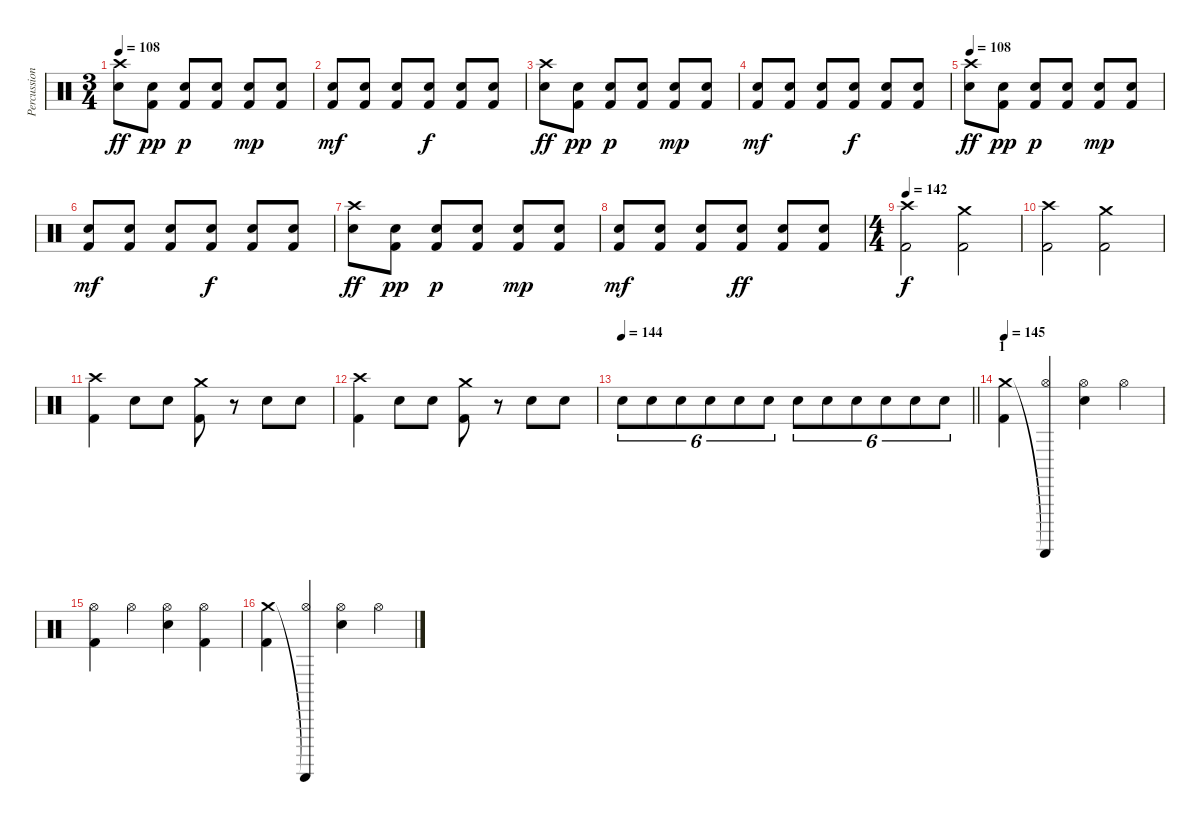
\track ("Percussion" "Percussion") {instrument percussion}
\staff {score}
\articulation defaults
\ts (3 4)
\tempo 108
\clef neutral
\ks c
("Electric Snare (hit)" "Crash high (hit)").8{dy ff} ("Electric Snare (hit)" "Kick (hit) 2").8{dy pp} ("Electric Snare (hit)" "Kick (hit) 2").8{dy p} ("Electric Snare (hit)" "Kick (hit) 2").8 ("Electric Snare (hit)" "Kick (hit) 2").8{dy mp} ("Electric Snare (hit)" "Kick (hit) 2").8 |
("Electric Snare (hit)" "Kick (hit) 2").8{dy mf} ("Electric Snare (hit)" "Kick (hit) 2").8 ("Electric Snare (hit)" "Kick (hit) 2").8 ("Electric Snare (hit)" "Kick (hit) 2").8{dy f} ("Electric Snare (hit)" "Kick (hit) 2").8 ("Electric Snare (hit)" "Kick (hit) 2").8 |
("Electric Snare (hit)" "Crash high (hit)").8{dy ff} ("Electric Snare (hit)" "Kick (hit) 2").8{dy pp} ("Electric Snare (hit)" "Kick (hit) 2").8{dy p} ("Electric Snare (hit)" "Kick (hit) 2").8 ("Electric Snare (hit)" "Kick (hit) 2").8{dy mp} ("Electric Snare (hit)" "Kick (hit) 2").8 |
("Electric Snare (hit)" "Kick (hit) 2").8{dy mf} ("Electric Snare (hit)" "Kick (hit) 2").8 ("Electric Snare (hit)" "Kick (hit) 2").8 ("Electric Snare (hit)" "Kick (hit) 2").8{dy f} ("Electric Snare (hit)" "Kick (hit) 2").8 ("Electric Snare (hit)" "Kick (hit) 2").8 |
\tempo 108
("Electric Snare (hit)" "Crash high (hit)").8{dy ff} ("Electric Snare (hit)" "Kick (hit) 2").8{dy pp} ("Electric Snare (hit)" "Kick (hit) 2").8{dy p} ("Electric Snare (hit)" "Kick (hit) 2").8 ("Electric Snare (hit)" "Kick (hit) 2").8{dy mp} ("Electric Snare (hit)" "Kick (hit) 2").8 |
("Electric Snare (hit)" "Kick (hit) 2").8{dy mf} ("Electric Snare (hit)" "Kick (hit) 2").8 ("Electric Snare (hit)" "Kick (hit) 2").8 ("Electric Snare (hit)" "Kick (hit) 2").8{dy f} ("Electric Snare (hit)" "Kick (hit) 2").8 ("Electric Snare (hit)" "Kick (hit) 2").8 |
("Electric Snare (hit)" "Crash high (hit)").8{dy ff} ("Electric Snare (hit)" "Kick (hit) 2").8{dy pp} ("Electric Snare (hit)" "Kick (hit) 2").8{dy p} ("Electric Snare (hit)" "Kick (hit) 2").8 ("Electric Snare (hit)" "Kick (hit) 2").8{dy mp} ("Electric Snare (hit)" "Kick (hit) 2").8 |
("Electric Snare (hit)" "Kick (hit) 2").8{dy mf} ("Electric Snare (hit)" "Kick (hit) 2").8 ("Electric Snare (hit)" "Kick (hit) 2").8 ("Electric Snare (hit)" "Kick (hit) 2").8{dy ff} ("Electric Snare (hit)" "Kick (hit) 2").8 ("Electric Snare (hit)" "Kick (hit) 2").8 |
\ts (4 4)
\tempo 142
("Kick (hit) 2" "Crash high (hit)").2{dy f} ("Kick (hit) 2" "Crash medium (hit)").2 |
("Kick (hit) 2" "Crash high (hit)").2 ("Kick (hit) 2" "Crash medium (hit)").2 |
("Kick (hit) 2" "Crash high (hit)").4 "Electric Snare (hit)".8 "Electric Snare (hit)".8 ("Kick (hit) 2" "Crash medium (hit)").8 r.8 "Electric Snare (hit)".8 "Electric Snare (hit)".8 |
("Kick (hit) 2" "Crash high (hit)").4 "Electric Snare (hit)".8 "Electric Snare (hit)".8 ("Kick (hit) 2" "Crash medium (hit)").8 r.8 "Electric Snare (hit)".8 "Electric Snare (hit)".8 |
\tempo 144
\barLineRight lightlight "Electric Snare (hit)".8{tu (6 4)} "Electric Snare (hit)".8{tu (6 4)} "Electric Snare (hit)".8{tu (6 4)} "Electric Snare (hit)".8{tu (6 4)} "Electric Snare (hit)".8{tu (6 4)} "Electric Snare (hit)".8{tu (6 4)} "Electric Snare (hit)".8{tu (6 4)} "Electric Snare (hit)".8{tu (6 4)} "Electric Snare (hit)".8{tu (6 4)} "Electric Snare (hit)".8{tu (6 4)} "Electric Snare (hit)".8{tu (6 4)} "Electric Snare (hit)".8{tu (6 4)}
|
\section ("" "1")
\tempo 145
("Crash medium (hit)" "Kick (hit) 2").4 ("Guiro (scrap-return)"{t} "Hi-Hat (open)").4 ("Hi-Hat (open)" "Electric Snare (hit)").4 "Hi-Hat (open)".4 |
("Hi-Hat (open)" "Kick (hit) 2").4 "Hi-Hat (open)".4 ("Hi-Hat (open)" "Electric Snare (hit)").4 ("Hi-Hat (open)" "Kick (hit) 2").4 |
("Crash medium (hit)" "Kick (hit) 2").4 ("Guiro (scrap-return)"{t} "Hi-Hat (open)").4 ("Hi-Hat (open)" "Electric Snare (hit)").4 "Hi-Hat (open)".4
